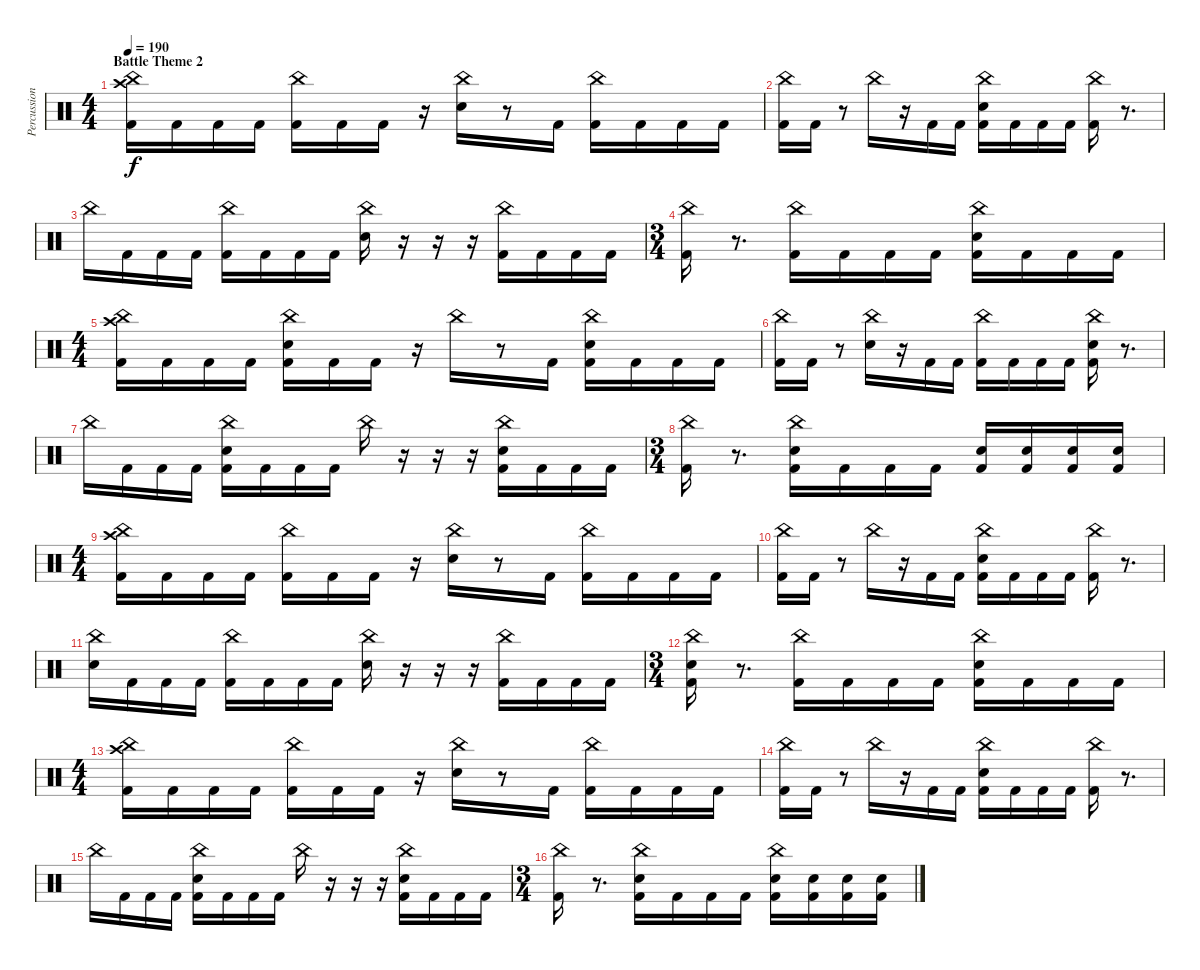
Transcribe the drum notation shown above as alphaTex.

\track ("Percussion" "Percussion") {instrument percussion}
\staff {score}
\articulation defaults
\ts (4 4)
\section ("" "Battle Theme 2")
\tempo 190
\clef neutral
\ks c
("China (hit)" "Crash high (hit)" "Kick (hit) 2").16{dy f} "Kick (hit) 2".16 "Kick (hit) 2".16 "Kick (hit) 2".16 ("China (hit)" "Kick (hit) 2").16 "Kick (hit) 2".16 "Kick (hit) 2".16 r.16 ("China (hit)" "Electric Snare (hit)").16 r.8 "Kick (hit) 2".16 ("China (hit)" "Kick (hit) 2").16 "Kick (hit) 2".16 "Kick (hit) 2".16 "Kick (hit) 2".16 |
("China (hit)" "Kick (hit) 2").16 "Kick (hit) 2".16 r.8 "China (hit)".16 r.16 "Kick (hit) 2".16 "Kick (hit) 2".16 ("China (hit)" "Electric Snare (hit)" "Kick (hit) 2").16 "Kick (hit) 2".16 "Kick (hit) 2".16 "Kick (hit) 2".16 ("China (hit)" "Kick (hit) 2").16 r.8{d} |
"China (hit)".16 "Kick (hit) 2".16 "Kick (hit) 2".16 "Kick (hit) 2".16 ("China (hit)" "Kick (hit) 2").16 "Kick (hit) 2".16 "Kick (hit) 2".16 "Kick (hit) 2".16 ("China (hit)" "Electric Snare (hit)").16 r.16 r.16 r.16 ("China (hit)" "Kick (hit) 2").16 "Kick (hit) 2".16 "Kick (hit) 2".16 "Kick (hit) 2".16 |
\ts (3 4)
("China (hit)" "Kick (hit) 2").16 r.8{d} ("China (hit)" "Kick (hit) 2").16 "Kick (hit) 2".16 "Kick (hit) 2".16 "Kick (hit) 2".16 ("China (hit)" "Electric Snare (hit)" "Kick (hit) 2").16 "Kick (hit) 2".16 "Kick (hit) 2".16 "Kick (hit) 2".16 |
\ts (4 4)
("China (hit)" "Crash high (hit)" "Kick (hit) 2").16 "Kick (hit) 2".16 "Kick (hit) 2".16 "Kick (hit) 2".16 ("China (hit)" "Electric Snare (hit)" "Kick (hit) 2").16 "Kick (hit) 2".16 "Kick (hit) 2".16 r.16 "China (hit)".16 r.8 "Kick (hit) 2".16 ("China (hit)" "Electric Snare (hit)" "Kick (hit) 2").16 "Kick (hit) 2".16 "Kick (hit) 2".16 "Kick (hit) 2".16 |
("China (hit)" "Kick (hit) 2").16 "Kick (hit) 2".16 r.8 ("China (hit)" "Electric Snare (hit)").16 r.16 "Kick (hit) 2".16 "Kick (hit) 2".16 ("China (hit)" "Kick (hit) 2").16 "Kick (hit) 2".16 "Kick (hit) 2".16 "Kick (hit) 2".16 ("China (hit)" "Electric Snare (hit)" "Kick (hit) 2").16 r.8{d} |
"China (hit)".16 "Kick (hit) 2".16 "Kick (hit) 2".16 "Kick (hit) 2".16 ("China (hit)" "Electric Snare (hit)" "Kick (hit) 2").16 "Kick (hit) 2".16 "Kick (hit) 2".16 "Kick (hit) 2".16 "China (hit)".16 r.16 r.16 r.16 ("China (hit)" "Electric Snare (hit)" "Kick (hit) 2").16 "Kick (hit) 2".16 "Kick (hit) 2".16 "Kick (hit) 2".16 |
\ts (3 4)
("China (hit)" "Kick (hit) 2").16 r.8{d} ("China (hit)" "Electric Snare (hit)" "Kick (hit) 2").16 "Kick (hit) 2".16 "Kick (hit) 2".16 "Kick (hit) 2".16 ("Electric Snare (hit)" "Kick (hit) 2").16 ("Electric Snare (hit)" "Kick (hit) 2").16 ("Electric Snare (hit)" "Kick (hit) 2").16 ("Electric Snare (hit)" "Kick (hit) 2").16 |
\ts (4 4)
("China (hit)" "Crash high (hit)" "Kick (hit) 2").16 "Kick (hit) 2".16 "Kick (hit) 2".16 "Kick (hit) 2".16 ("China (hit)" "Kick (hit) 2").16 "Kick (hit) 2".16 "Kick (hit) 2".16 r.16 ("China (hit)" "Electric Snare (hit)").16 r.8 "Kick (hit) 2".16 ("China (hit)" "Kick (hit) 2").16 "Kick (hit) 2".16 "Kick (hit) 2".16 "Kick (hit) 2".16 |
("China (hit)" "Kick (hit) 2").16 "Kick (hit) 2".16 r.8 "China (hit)".16 r.16 "Kick (hit) 2".16 "Kick (hit) 2".16 ("China (hit)" "Electric Snare (hit)" "Kick (hit) 2").16 "Kick (hit) 2".16 "Kick (hit) 2".16 "Kick (hit) 2".16 ("China (hit)" "Kick (hit) 2").16 r.8{d} |
("China (hit)" "Electric Snare (hit)").16 "Kick (hit) 2".16 "Kick (hit) 2".16 "Kick (hit) 2".16 ("China (hit)" "Kick (hit) 2").16 "Kick (hit) 2".16 "Kick (hit) 2".16 "Kick (hit) 2".16 ("China (hit)" "Electric Snare (hit)").16 r.16 r.16 r.16 ("China (hit)" "Kick (hit) 2").16 "Kick (hit) 2".16 "Kick (hit) 2".16 "Kick (hit) 2".16 |
\ts (3 4)
("China (hit)" "Electric Snare (hit)" "Kick (hit) 2").16 r.8{d} ("China (hit)" "Kick (hit) 2").16 "Kick (hit) 2".16 "Kick (hit) 2".16 "Kick (hit) 2".16 ("China (hit)" "Electric Snare (hit)" "Kick (hit) 2").16 "Kick (hit) 2".16 "Kick (hit) 2".16 "Kick (hit) 2".16 |
\ts (4 4)
("China (hit)" "Crash high (hit)" "Kick (hit) 2").16 "Kick (hit) 2".16 "Kick (hit) 2".16 "Kick (hit) 2".16 ("China (hit)" "Kick (hit) 2").16 "Kick (hit) 2".16 "Kick (hit) 2".16 r.16 ("China (hit)" "Electric Snare (hit)").16 r.8 "Kick (hit) 2".16 ("China (hit)" "Kick (hit) 2").16 "Kick (hit) 2".16 "Kick (hit) 2".16 "Kick (hit) 2".16 |
("China (hit)" "Kick (hit) 2").16 "Kick (hit) 2".16 r.8 "China (hit)".16 r.16 "Kick (hit) 2".16 "Kick (hit) 2".16 ("China (hit)" "Electric Snare (hit)" "Kick (hit) 2").16 "Kick (hit) 2".16 "Kick (hit) 2".16 "Kick (hit) 2".16 ("China (hit)" "Kick (hit) 2").16 r.8{d} |
"China (hit)".16 "Kick (hit) 2".16 "Kick (hit) 2".16 "Kick (hit) 2".16 ("China (hit)" "Electric Snare (hit)" "Kick (hit) 2").16 "Kick (hit) 2".16 "Kick (hit) 2".16 "Kick (hit) 2".16 "China (hit)".16 r.16 r.16 r.16 ("China (hit)" "Electric Snare (hit)" "Kick (hit) 2").16 "Kick (hit) 2".16 "Kick (hit) 2".16 "Kick (hit) 2".16 |
\ts (3 4)
("China (hit)" "Kick (hit) 2").16 r.8{d} ("China (hit)" "Electric Snare (hit)" "Kick (hit) 2").16 "Kick (hit) 2".16 "Kick (hit) 2".16 "Kick (hit) 2".16 ("China (hit)" "Electric Snare (hit)" "Kick (hit) 2").16 ("Electric Snare (hit)" "Kick (hit) 2").16 ("Electric Snare (hit)" "Kick (hit) 2").16 ("Electric Snare (hit)" "Kick (hit) 2").16
